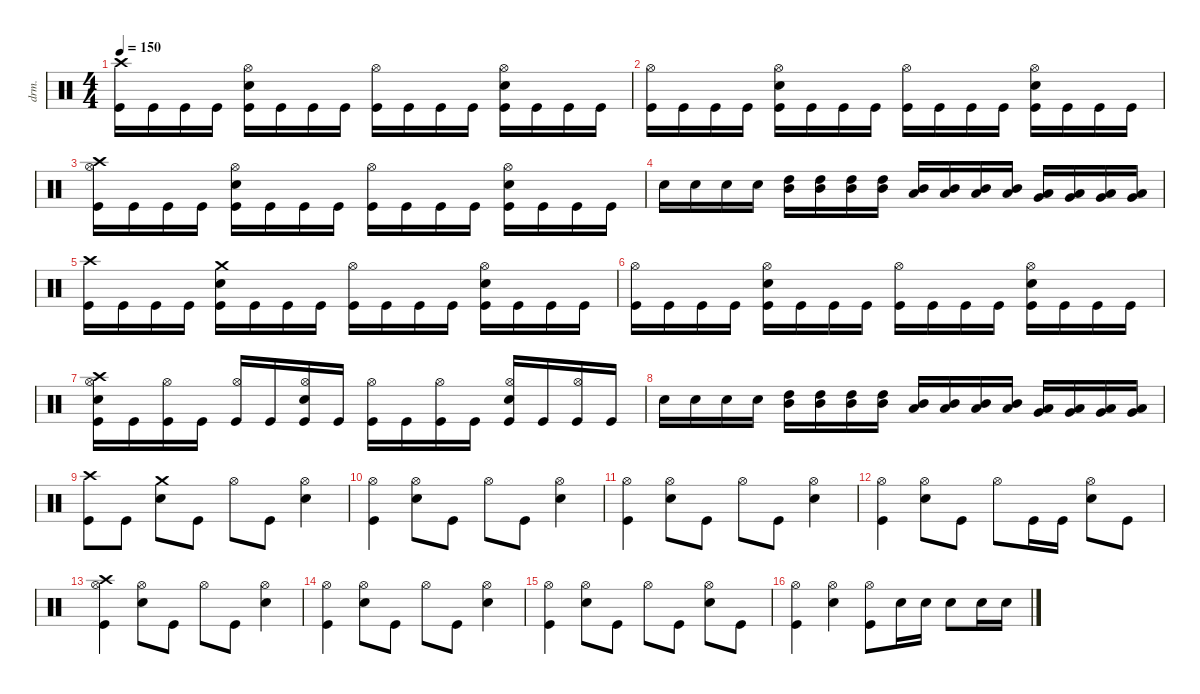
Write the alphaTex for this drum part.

\defaultSystemsLayout 4
\hideDynamics
\bracketExtendMode nobrackets
\otherSystemsTrackNameOrientation horizontal
\track ("Percussions" "drm.") {instrument percussion}
\staff {score}
\articulation defaults
\ts (4 4)
\beaming (8 2 2 2 2)
\tempo 150
\clef neutral
\ks c
("Kick (hit)" "Crash high (hit)").16{dy mf beam Down} "Kick (hit)".16{beam Down} "Kick (hit)".16{beam Down} "Kick (hit)".16{beam Down} ("Kick (hit)" "Snare (hit) 2" "Hi-Hat (open)").16{beam Down} "Kick (hit)".16{beam Down} "Kick (hit)".16{beam Down} "Kick (hit)".16{beam Down} ("Kick (hit)" "Hi-Hat (open)").16{beam Down} "Kick (hit)".16{beam Down} "Kick (hit)".16{beam Down} "Kick (hit)".16{beam Down} ("Kick (hit)" "Snare (hit) 2" "Hi-Hat (open)").16{beam Down} "Kick (hit)".16{beam Down} "Kick (hit)".16{beam Down} "Kick (hit)".16{beam Down} |
("Kick (hit)" "Hi-Hat (open)").16{beam Down} "Kick (hit)".16{beam Down} "Kick (hit)".16{beam Down} "Kick (hit)".16{beam Down} ("Kick (hit)" "Snare (hit) 2" "Hi-Hat (open)").16{beam Down} "Kick (hit)".16{beam Down} "Kick (hit)".16{beam Down} "Kick (hit)".16{beam Down} ("Kick (hit)" "Hi-Hat (open)").16{beam Down} "Kick (hit)".16{beam Down} "Kick (hit)".16{beam Down} "Kick (hit)".16{beam Down} ("Kick (hit)" "Snare (hit) 2" "Hi-Hat (open)").16{beam Down} "Kick (hit)".16{beam Down} "Kick (hit)".16{beam Down} "Kick (hit)".16{beam Down} |
("Kick (hit)" "Hi-Hat (open)" "Crash high (hit)").16{beam Down} "Kick (hit)".16{beam Down} "Kick (hit)".16{beam Down} "Kick (hit)".16{beam Down} ("Kick (hit)" "Snare (hit) 2" "Hi-Hat (open)").16{beam Down} "Kick (hit)".16{beam Down} "Kick (hit)".16{beam Down} "Kick (hit)".16{beam Down} ("Kick (hit)" "Hi-Hat (open)").16{beam Down} "Kick (hit)".16{beam Down} "Kick (hit)".16{beam Down} "Kick (hit)".16{beam Down} ("Kick (hit)" "Snare (hit) 2" "Hi-Hat (open)").16{beam Down} "Kick (hit)".16{beam Down} "Kick (hit)".16{beam Down} "Kick (hit)".16{beam Down} |
"Snare (hit) 2".16{dy f beam Down} "Snare (hit) 2".16{beam Down} "Snare (hit) 2".16{beam Down} "Snare (hit) 2".16{beam Down} ("High Tom (hit)" "Mid Tom (hit)").16{dy p beam Down} ("High Tom (hit)" "Mid Tom (hit)").16{beam Down} ("High Tom (hit)" "Mid Tom (hit)").16{beam Down} ("High Tom (hit)" "Mid Tom (hit)").16{beam Down} ("Mid Tom (hit)" "Low Tom (hit)").16{beam Up} ("Mid Tom (hit)" "Low Tom (hit)").16{beam Up} ("Mid Tom (hit)" "Low Tom (hit)").16{beam Up} ("Mid Tom (hit)" "Low Tom (hit)").16{beam Up} ("Low Tom (hit)" "Very Low Tom (hit)").16{beam Up} ("Low Tom (hit)" "Very Low Tom (hit)").16{beam Up} ("Low Tom (hit)" "Very Low Tom (hit)").16{beam Up} ("Low Tom (hit)" "Very Low Tom (hit)").16{beam Up} |
("Kick (hit)" "Crash high (hit)").16{dy mf beam Down} "Kick (hit)".16{beam Down} "Kick (hit)".16{beam Down} "Kick (hit)".16{beam Down} ("Kick (hit)" "Snare (hit) 2" "Crash medium (hit)").16{beam Down} "Kick (hit)".16{beam Down} "Kick (hit)".16{beam Down} "Kick (hit)".16{beam Down} ("Kick (hit)" "Hi-Hat (open)").16{beam Down} "Kick (hit)".16{beam Down} "Kick (hit)".16{beam Down} "Kick (hit)".16{beam Down} ("Kick (hit)" "Snare (hit) 2" "Hi-Hat (open)").16{beam Down} "Kick (hit)".16{beam Down} "Kick (hit)".16{beam Down} "Kick (hit)".16{beam Down} |
("Kick (hit)" "Hi-Hat (open)").16{beam Down} "Kick (hit)".16{beam Down} "Kick (hit)".16{beam Down} "Kick (hit)".16{beam Down} ("Kick (hit)" "Snare (hit) 2" "Hi-Hat (open)").16{beam Down} "Kick (hit)".16{beam Down} "Kick (hit)".16{beam Down} "Kick (hit)".16{beam Down} ("Kick (hit)" "Hi-Hat (open)").16{beam Down} "Kick (hit)".16{beam Down} "Kick (hit)".16{beam Down} "Kick (hit)".16{beam Down} ("Kick (hit)" "Snare (hit) 2" "Hi-Hat (open)").16{beam Down} "Kick (hit)".16{beam Down} "Kick (hit)".16{beam Down} "Kick (hit)".16{beam Down} |
("Kick (hit)" "Snare (hit) 2" "Hi-Hat (open)" "Crash high (hit)").16{beam Down} "Kick (hit)".16{beam Down} ("Kick (hit)" "Hi-Hat (open)").16{beam Down} "Kick (hit)".16{beam Down} ("Kick (hit)" "Hi-Hat (open)").16{beam Up} "Kick (hit)".16{beam Up} ("Kick (hit)" "Snare (hit) 2" "Hi-Hat (open)").16{beam Up} "Kick (hit)".16{beam Up} ("Kick (hit)" "Hi-Hat (open)").16{beam Down} "Kick (hit)".16{beam Down} ("Kick (hit)" "Hi-Hat (open)").16{beam Down} "Kick (hit)".16{beam Down} ("Kick (hit)" "Snare (hit) 2" "Hi-Hat (open)").16{beam Up} "Kick (hit)".16{beam Up} ("Kick (hit)" "Hi-Hat (open)").16{beam Up} "Kick (hit)".16{beam Up} |
"Snare (hit) 2".16{dy f beam Down} "Snare (hit) 2".16{beam Down} "Snare (hit) 2".16{beam Down} "Snare (hit) 2".16{beam Down} ("High Tom (hit)" "Mid Tom (hit)").16{dy p beam Down} ("High Tom (hit)" "Mid Tom (hit)").16{beam Down} ("High Tom (hit)" "Mid Tom (hit)").16{beam Down} ("High Tom (hit)" "Mid Tom (hit)").16{beam Down} ("Mid Tom (hit)" "Low Tom (hit)").16{beam Up} ("Mid Tom (hit)" "Low Tom (hit)").16{beam Up} ("Mid Tom (hit)" "Low Tom (hit)").16{beam Up} ("Mid Tom (hit)" "Low Tom (hit)").16{beam Up} ("Low Tom (hit)" "Very Low Tom (hit)").16{beam Up} ("Low Tom (hit)" "Very Low Tom (hit)").16{beam Up} ("Low Tom (hit)" "Very Low Tom (hit)").16{beam Up} ("Low Tom (hit)" "Very Low Tom (hit)").16{beam Up} |
("Kick (hit)" "Crash high (hit)").8{dy f beam Down} "Kick (hit)".8{beam Down} ("Snare (hit) 2" "Crash medium (hit)").8{beam Down} "Kick (hit)".8{beam Down} "Hi-Hat (open)".8{dy mf beam Down} "Kick (hit)".8{dy f beam Down} ("Snare (hit) 2" "Hi-Hat (open)").4{beam Down} |
("Kick (hit)" "Hi-Hat (open)").4{beam Down} ("Snare (hit) 2" "Hi-Hat (open)").8{beam Down} "Kick (hit)".8{beam Down} "Hi-Hat (open)".8{dy mf beam Down} "Kick (hit)".8{dy f beam Down} ("Snare (hit) 2" "Hi-Hat (open)").4{beam Down} |
("Kick (hit)" "Hi-Hat (open)").4{beam Down} ("Snare (hit) 2" "Hi-Hat (open)").8{beam Down} "Kick (hit)".8{beam Down} "Hi-Hat (open)".8{dy mf beam Down} "Kick (hit)".8{dy f beam Down} ("Snare (hit) 2" "Hi-Hat (open)").4{beam Down} |
("Kick (hit)" "Hi-Hat (open)").4{beam Down} ("Snare (hit) 2" "Hi-Hat (open)").8{beam Down} "Kick (hit)".8{beam Down} "Hi-Hat (open)".8{dy mf beam Down} "Kick (hit)".16{dy f beam Down} "Kick (hit)".16{beam Down} ("Snare (hit) 2" "Hi-Hat (open)").8{beam Down} "Kick (hit)".8{beam Down} |
("Kick (hit)" "Hi-Hat (open)" "Crash high (hit)").4{beam Down} ("Snare (hit) 2" "Hi-Hat (open)").8{beam Down} "Kick (hit)".8{beam Down} "Hi-Hat (open)".8{dy mf beam Down} "Kick (hit)".8{dy f beam Down} ("Snare (hit) 2" "Hi-Hat (open)").4{beam Down} |
("Kick (hit)" "Hi-Hat (open)").4{beam Down} ("Snare (hit) 2" "Hi-Hat (open)").8{beam Down} "Kick (hit)".8{beam Down} "Hi-Hat (open)".8{dy mf beam Down} "Kick (hit)".8{dy f beam Down} ("Snare (hit) 2" "Hi-Hat (open)").4{beam Down} |
("Kick (hit)" "Hi-Hat (open)").4{beam Down} ("Snare (hit) 2" "Hi-Hat (open)").8{beam Down} "Kick (hit)".8{beam Down} "Hi-Hat (open)".8{dy mf beam Down} "Kick (hit)".8{dy f beam Down} ("Snare (hit) 2" "Hi-Hat (open)").8{beam Down} "Kick (hit)".8{beam Down} |
("Kick (hit)" "Hi-Hat (open)").4{beam Down} ("Snare (hit) 2" "Hi-Hat (open)").4{beam Down} ("Kick (hit)" "Hi-Hat (open)").8{beam Down} "Snare (hit) 2".16{beam Down} "Snare (hit) 2".16{beam Down} "Snare (hit) 2".8{beam Down} "Snare (hit) 2".16{beam Down} "Snare (hit) 2".16{beam Down}
